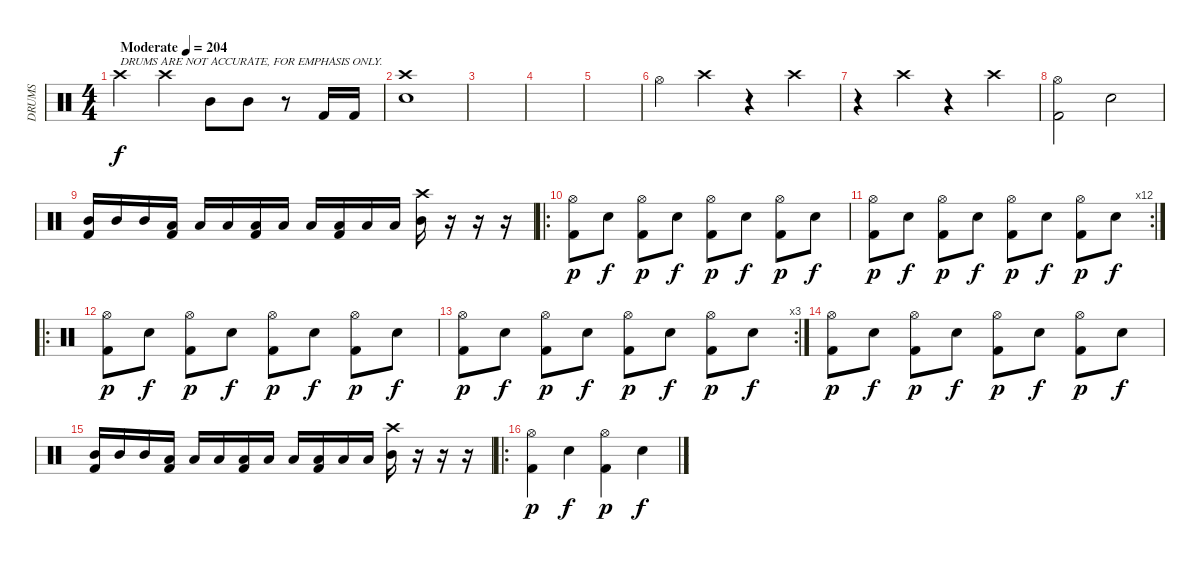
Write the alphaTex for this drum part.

\track ("DRUMS" "DRUMS") {instrument percussion}
\staff {score}
\articulation defaults
\ts (4 4)
\tempo (204 "Moderate")
\clef neutral
\ks c "Crash high (hit)".4{txt "DRUMS ARE NOT ACCURATE, FOR EMPHASIS ONLY." dy f} "Crash high (hit)".4 "Mid Tom (hit)".8 "Mid Tom (hit)".8
r.8 "Kick (hit) 2".16 "Kick (hit) 2".16 |
("Crash high (hit)" "Electric Snare (hit)").1 |
|
|
|
"Hi-Hat (open)".4 "Crash high (hit)".4 r.4 "Crash high (hit)".4 |
r.4 "Crash high (hit)".4 r.4 "Crash high (hit)".4 |
("Kick (hit) 2" "Hi-Hat (open)").2 "Electric Snare (hit)".2 |
("Kick (hit) 2" "Mid Tom (hit)").16 "Mid Tom (hit)".16 "Mid Tom (hit)".16 ("Kick (hit) 2" "Low Tom (hit)").16 "Low Tom (hit)".16 "Low Tom (hit)".16 ("Kick (hit) 2" "Low Tom (hit)").16 "Low Tom (hit)".16 "Low Tom (hit)".16 ("Kick (hit) 2" "Low Tom (hit)").16 "Low Tom (hit)".16 "Low Tom (hit)".16 ("Crash high (hit)" "Mid Tom (hit)").16 r.16 r.16 r.16 |
\ro
("Kick (hit) 2" "Hi-Hat (open)").8{dy p} "Electric Snare (hit)".8{dy f} ("Kick (hit) 2" "Hi-Hat (open)").8{dy p} "Electric Snare (hit)".8{dy f} ("Kick (hit) 2" "Hi-Hat (open)").8{dy p} "Electric Snare (hit)".8{dy f} ("Kick (hit) 2" "Hi-Hat (open)").8{dy p} "Electric Snare (hit)".8{dy f} |
\rc 12
("Kick (hit) 2" "Hi-Hat (open)").8{dy p} "Electric Snare (hit)".8{dy f} ("Kick (hit) 2" "Hi-Hat (open)").8{dy p} "Electric Snare (hit)".8{dy f} ("Kick (hit) 2" "Hi-Hat (open)").8{dy p} "Electric Snare (hit)".8{dy f} ("Kick (hit) 2" "Hi-Hat (open)").8{dy p} "Electric Snare (hit)".8{dy f} |
\ro
("Kick (hit) 2" "Hi-Hat (open)").8{dy p} "Electric Snare (hit)".8{dy f} ("Kick (hit) 2" "Hi-Hat (open)").8{dy p} "Electric Snare (hit)".8{dy f} ("Kick (hit) 2" "Hi-Hat (open)").8{dy p} "Electric Snare (hit)".8{dy f} ("Kick (hit) 2" "Hi-Hat (open)").8{dy p} "Electric Snare (hit)".8{dy f} |
\rc 3
("Kick (hit) 2" "Hi-Hat (open)").8{dy p} "Electric Snare (hit)".8{dy f} ("Kick (hit) 2" "Hi-Hat (open)").8{dy p} "Electric Snare (hit)".8{dy f} ("Kick (hit) 2" "Hi-Hat (open)").8{dy p} "Electric Snare (hit)".8{dy f} ("Kick (hit) 2" "Hi-Hat (open)").8{dy p} "Electric Snare (hit)".8{dy f} |
("Kick (hit) 2" "Hi-Hat (open)").8{dy p} "Electric Snare (hit)".8{dy f} ("Kick (hit) 2" "Hi-Hat (open)").8{dy p} "Electric Snare (hit)".8{dy f} ("Kick (hit) 2" "Hi-Hat (open)").8{dy p} "Electric Snare (hit)".8{dy f} ("Kick (hit) 2" "Hi-Hat (open)").8{dy p} "Electric Snare (hit)".8{dy f} |
("Kick (hit) 2" "Mid Tom (hit)").16 "Mid Tom (hit)".16 "Mid Tom (hit)".16 ("Kick (hit) 2" "Low Tom (hit)").16 "Low Tom (hit)".16 "Low Tom (hit)".16 ("Kick (hit) 2" "Low Tom (hit)").16 "Low Tom (hit)".16 "Low Tom (hit)".16 ("Kick (hit) 2" "Low Tom (hit)").16 "Low Tom (hit)".16 "Low Tom (hit)".16 ("Crash high (hit)" "Mid Tom (hit)").16 r.16 r.16 r.16 |
\ro
("Kick (hit) 2" "Hi-Hat (open)").4{dy p} "Electric Snare (hit)".4{dy f} ("Kick (hit) 2" "Hi-Hat (open)").4{dy p} "Electric Snare (hit)".4{dy f}
